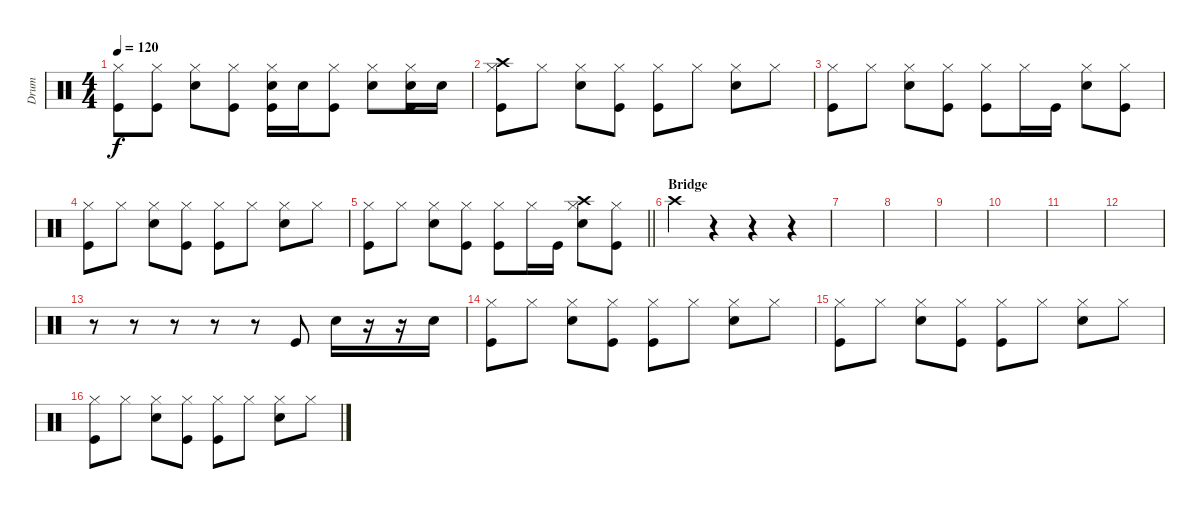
\track ("Drum" "Drum") {instrument percussion}
\staff {score}
\articulation defaults
\ts (4 4)
\tempo 120
\clef neutral
\ks c
("Hi-Hat (closed)" "Kick (hit)").8{dy f} ("Hi-Hat (closed)" "Kick (hit)").8 ("Hi-Hat (closed)" "Snare (hit) 2").8 ("Hi-Hat (closed)" "Kick (hit)").8 ("Hi-Hat (closed)" "Snare (hit) 2" "Kick (hit)").16 "Snare (hit) 2".16 ("Hi-Hat (closed)" "Kick (hit)").8 ("Hi-Hat (closed)" "Snare (hit) 2").8 ("Hi-Hat (closed)" "Snare (hit) 2" "Kick (hit)").16 "Snare (hit) 2".16 |
("Hi-Hat (closed)" "Crash high (hit)" "Kick (hit)").8 "Hi-Hat (closed)".8 ("Hi-Hat (closed)" "Snare (hit) 2").8 ("Hi-Hat (closed)" "Kick (hit)").8 ("Hi-Hat (closed)" "Kick (hit)").8 "Hi-Hat (closed)".8 ("Hi-Hat (closed)" "Snare (hit) 2").8 "Hi-Hat (closed)".8 |
("Hi-Hat (closed)" "Kick (hit)").8 "Hi-Hat (closed)".8 ("Hi-Hat (closed)" "Snare (hit) 2").8 ("Hi-Hat (closed)" "Kick (hit)").8 ("Hi-Hat (closed)" "Kick (hit)").8 "Hi-Hat (closed)".16 "Kick (hit)".16 ("Hi-Hat (closed)" "Snare (hit) 2").8 ("Hi-Hat (closed)" "Kick (hit)").8 |
("Hi-Hat (closed)" "Kick (hit)").8 "Hi-Hat (closed)".8 ("Hi-Hat (closed)" "Snare (hit) 2").8 ("Hi-Hat (closed)" "Kick (hit)").8 ("Hi-Hat (closed)" "Kick (hit)").8 "Hi-Hat (closed)".8 ("Hi-Hat (closed)" "Snare (hit) 2").8 "Hi-Hat (closed)".8 |
\barLineRight lightlight
("Hi-Hat (closed)" "Kick (hit)").8 "Hi-Hat (closed)".8 ("Hi-Hat (closed)" "Snare (hit) 2").8 ("Hi-Hat (closed)" "Kick (hit)").8 ("Hi-Hat (closed)" "Kick (hit)").8 "Hi-Hat (closed)".16 "Kick (hit)".16 ("Hi-Hat (closed)" "Snare (hit) 2" "Crash high (hit)").8 ("Hi-Hat (closed)" "Kick (hit)").8 |
\section ("" "Bridge")
"Crash high (hit)".4 r.4 r.4 r.4 |
|
|
|
|
|
|
r.8 r.8 r.8 r.8 r.8 "Kick (hit)".8 "Snare (hit) 2".16 r.16 r.16 "Snare (hit) 2".16 |
("Hi-Hat (closed)" "Kick (hit)").8 "Hi-Hat (closed)".8 ("Hi-Hat (closed)" "Snare (hit) 2").8 ("Hi-Hat (closed)" "Kick (hit)").8 ("Hi-Hat (closed)" "Kick (hit)").8 "Hi-Hat (closed)".8 ("Hi-Hat (closed)" "Snare (hit) 2").8 "Hi-Hat (closed)".8 |
("Hi-Hat (closed)" "Kick (hit)").8 "Hi-Hat (closed)".8 ("Hi-Hat (closed)" "Snare (hit) 2").8 ("Hi-Hat (closed)" "Kick (hit)").8 ("Hi-Hat (closed)" "Kick (hit)").8 "Hi-Hat (closed)".8 ("Hi-Hat (closed)" "Snare (hit) 2").8 "Hi-Hat (closed)".8 |
("Hi-Hat (closed)" "Kick (hit)").8 "Hi-Hat (closed)".8 ("Hi-Hat (closed)" "Snare (hit) 2").8 ("Hi-Hat (closed)" "Kick (hit)").8 ("Hi-Hat (closed)" "Kick (hit)").8 "Hi-Hat (closed)".8 ("Hi-Hat (closed)" "Snare (hit) 2").8 "Hi-Hat (closed)".8
